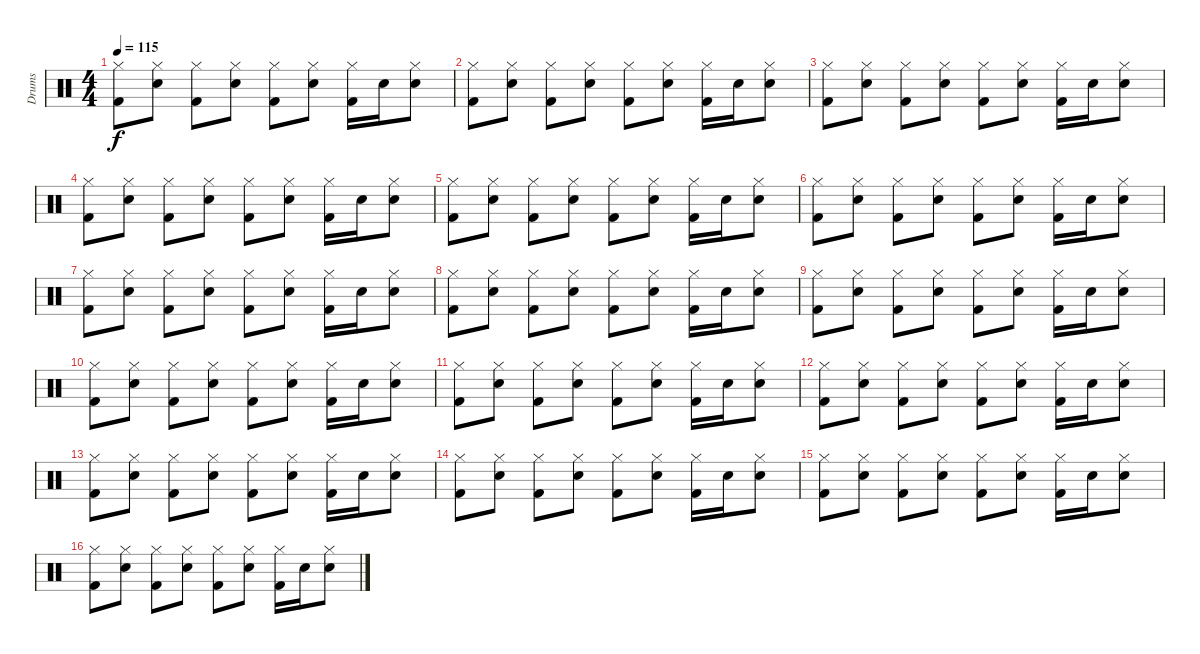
\track ("Drums" "Drums") {instrument percussion}
\staff {score}
\articulation defaults
\ts (4 4)
\tempo 115
\clef neutral
\ks c
("Hi-Hat (closed)" "Kick (hit) 2").8{dy f} ("Electric Snare (hit)" "Hi-Hat (closed)").8 ("Hi-Hat (closed)" "Kick (hit) 2").8 ("Electric Snare (hit)" "Hi-Hat (closed)").8 ("Hi-Hat (closed)" "Kick (hit) 2").8 ("Electric Snare (hit)" "Hi-Hat (closed)").8 ("Hi-Hat (closed)" "Kick (hit) 2").16 "Electric Snare (hit)".16 ("Electric Snare (hit)" "Hi-Hat (closed)").8 |
("Hi-Hat (closed)" "Kick (hit) 2").8 ("Electric Snare (hit)" "Hi-Hat (closed)").8 ("Hi-Hat (closed)" "Kick (hit) 2").8 ("Electric Snare (hit)" "Hi-Hat (closed)").8 ("Hi-Hat (closed)" "Kick (hit) 2").8 ("Electric Snare (hit)" "Hi-Hat (closed)").8 ("Hi-Hat (closed)" "Kick (hit) 2").16 "Electric Snare (hit)".16 ("Electric Snare (hit)" "Hi-Hat (closed)").8 |
("Hi-Hat (closed)" "Kick (hit) 2").8 ("Electric Snare (hit)" "Hi-Hat (closed)").8 ("Hi-Hat (closed)" "Kick (hit) 2").8 ("Electric Snare (hit)" "Hi-Hat (closed)").8 ("Hi-Hat (closed)" "Kick (hit) 2").8 ("Electric Snare (hit)" "Hi-Hat (closed)").8 ("Hi-Hat (closed)" "Kick (hit) 2").16 "Electric Snare (hit)".16 ("Electric Snare (hit)" "Hi-Hat (closed)").8 |
("Hi-Hat (closed)" "Kick (hit) 2").8 ("Electric Snare (hit)" "Hi-Hat (closed)").8 ("Hi-Hat (closed)" "Kick (hit) 2").8 ("Electric Snare (hit)" "Hi-Hat (closed)").8 ("Hi-Hat (closed)" "Kick (hit) 2").8 ("Electric Snare (hit)" "Hi-Hat (closed)").8 ("Hi-Hat (closed)" "Kick (hit) 2").16 "Electric Snare (hit)".16 ("Electric Snare (hit)" "Hi-Hat (closed)").8 |
("Hi-Hat (closed)" "Kick (hit) 2").8 ("Electric Snare (hit)" "Hi-Hat (closed)").8 ("Hi-Hat (closed)" "Kick (hit) 2").8 ("Electric Snare (hit)" "Hi-Hat (closed)").8 ("Hi-Hat (closed)" "Kick (hit) 2").8 ("Electric Snare (hit)" "Hi-Hat (closed)").8 ("Hi-Hat (closed)" "Kick (hit) 2").16 "Electric Snare (hit)".16 ("Electric Snare (hit)" "Hi-Hat (closed)").8 |
("Hi-Hat (closed)" "Kick (hit) 2").8 ("Electric Snare (hit)" "Hi-Hat (closed)").8 ("Hi-Hat (closed)" "Kick (hit) 2").8 ("Electric Snare (hit)" "Hi-Hat (closed)").8 ("Hi-Hat (closed)" "Kick (hit) 2").8 ("Electric Snare (hit)" "Hi-Hat (closed)").8 ("Hi-Hat (closed)" "Kick (hit) 2").16 "Electric Snare (hit)".16 ("Electric Snare (hit)" "Hi-Hat (closed)").8 |
("Hi-Hat (closed)" "Kick (hit) 2").8 ("Electric Snare (hit)" "Hi-Hat (closed)").8 ("Hi-Hat (closed)" "Kick (hit) 2").8 ("Electric Snare (hit)" "Hi-Hat (closed)").8 ("Hi-Hat (closed)" "Kick (hit) 2").8 ("Electric Snare (hit)" "Hi-Hat (closed)").8 ("Hi-Hat (closed)" "Kick (hit) 2").16 "Electric Snare (hit)".16 ("Electric Snare (hit)" "Hi-Hat (closed)").8 |
("Hi-Hat (closed)" "Kick (hit) 2").8 ("Electric Snare (hit)" "Hi-Hat (closed)").8 ("Hi-Hat (closed)" "Kick (hit) 2").8 ("Electric Snare (hit)" "Hi-Hat (closed)").8 ("Hi-Hat (closed)" "Kick (hit) 2").8 ("Electric Snare (hit)" "Hi-Hat (closed)").8 ("Hi-Hat (closed)" "Kick (hit) 2").16 "Electric Snare (hit)".16 ("Electric Snare (hit)" "Hi-Hat (closed)").8 |
("Hi-Hat (closed)" "Kick (hit) 2").8 ("Electric Snare (hit)" "Hi-Hat (closed)").8 ("Hi-Hat (closed)" "Kick (hit) 2").8 ("Electric Snare (hit)" "Hi-Hat (closed)").8 ("Hi-Hat (closed)" "Kick (hit) 2").8 ("Electric Snare (hit)" "Hi-Hat (closed)").8 ("Hi-Hat (closed)" "Kick (hit) 2").16 "Electric Snare (hit)".16 ("Electric Snare (hit)" "Hi-Hat (closed)").8 |
("Hi-Hat (closed)" "Kick (hit) 2").8 ("Electric Snare (hit)" "Hi-Hat (closed)").8 ("Hi-Hat (closed)" "Kick (hit) 2").8 ("Electric Snare (hit)" "Hi-Hat (closed)").8 ("Hi-Hat (closed)" "Kick (hit) 2").8 ("Electric Snare (hit)" "Hi-Hat (closed)").8 ("Hi-Hat (closed)" "Kick (hit) 2").16 "Electric Snare (hit)".16 ("Electric Snare (hit)" "Hi-Hat (closed)").8 |
("Hi-Hat (closed)" "Kick (hit) 2").8 ("Electric Snare (hit)" "Hi-Hat (closed)").8 ("Hi-Hat (closed)" "Kick (hit) 2").8 ("Electric Snare (hit)" "Hi-Hat (closed)").8 ("Hi-Hat (closed)" "Kick (hit) 2").8 ("Electric Snare (hit)" "Hi-Hat (closed)").8 ("Hi-Hat (closed)" "Kick (hit) 2").16 "Electric Snare (hit)".16 ("Electric Snare (hit)" "Hi-Hat (closed)").8 |
("Hi-Hat (closed)" "Kick (hit) 2").8 ("Electric Snare (hit)" "Hi-Hat (closed)").8 ("Hi-Hat (closed)" "Kick (hit) 2").8 ("Electric Snare (hit)" "Hi-Hat (closed)").8 ("Hi-Hat (closed)" "Kick (hit) 2").8 ("Electric Snare (hit)" "Hi-Hat (closed)").8 ("Hi-Hat (closed)" "Kick (hit) 2").16 "Electric Snare (hit)".16 ("Electric Snare (hit)" "Hi-Hat (closed)").8 |
("Hi-Hat (closed)" "Kick (hit) 2").8 ("Electric Snare (hit)" "Hi-Hat (closed)").8 ("Hi-Hat (closed)" "Kick (hit) 2").8 ("Electric Snare (hit)" "Hi-Hat (closed)").8 ("Hi-Hat (closed)" "Kick (hit) 2").8 ("Electric Snare (hit)" "Hi-Hat (closed)").8 ("Hi-Hat (closed)" "Kick (hit) 2").16 "Electric Snare (hit)".16 ("Electric Snare (hit)" "Hi-Hat (closed)").8 |
("Hi-Hat (closed)" "Kick (hit) 2").8 ("Electric Snare (hit)" "Hi-Hat (closed)").8 ("Hi-Hat (closed)" "Kick (hit) 2").8 ("Electric Snare (hit)" "Hi-Hat (closed)").8 ("Hi-Hat (closed)" "Kick (hit) 2").8 ("Electric Snare (hit)" "Hi-Hat (closed)").8 ("Hi-Hat (closed)" "Kick (hit) 2").16 "Electric Snare (hit)".16 ("Electric Snare (hit)" "Hi-Hat (closed)").8 |
("Hi-Hat (closed)" "Kick (hit) 2").8 ("Electric Snare (hit)" "Hi-Hat (closed)").8 ("Hi-Hat (closed)" "Kick (hit) 2").8 ("Electric Snare (hit)" "Hi-Hat (closed)").8 ("Hi-Hat (closed)" "Kick (hit) 2").8 ("Electric Snare (hit)" "Hi-Hat (closed)").8 ("Hi-Hat (closed)" "Kick (hit) 2").16 "Electric Snare (hit)".16 ("Electric Snare (hit)" "Hi-Hat (closed)").8 |
("Hi-Hat (closed)" "Kick (hit) 2").8 ("Electric Snare (hit)" "Hi-Hat (closed)").8 ("Hi-Hat (closed)" "Kick (hit) 2").8 ("Electric Snare (hit)" "Hi-Hat (closed)").8 ("Hi-Hat (closed)" "Kick (hit) 2").8 ("Electric Snare (hit)" "Hi-Hat (closed)").8 ("Hi-Hat (closed)" "Kick (hit) 2").16 "Electric Snare (hit)".16 ("Electric Snare (hit)" "Hi-Hat (closed)").8
